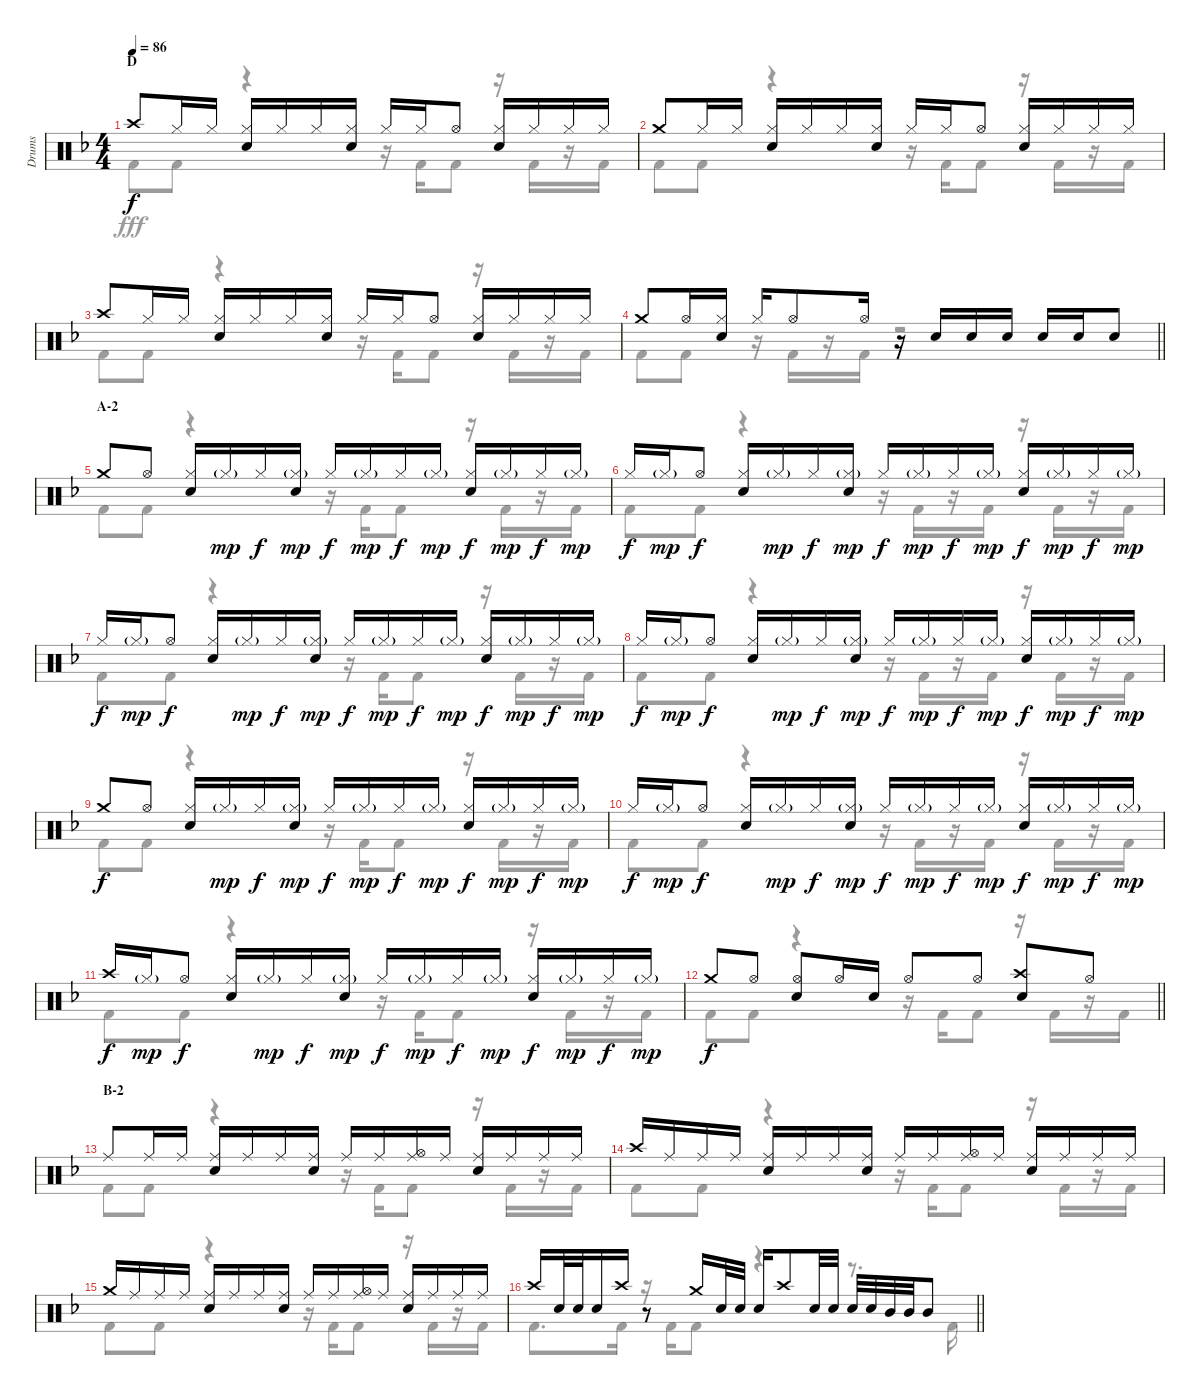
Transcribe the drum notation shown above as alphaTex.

\track ("Drums" "Drums") {instrument percussion}
\staff {score}
\articulation defaults
\voice
\ts (4 4)
\section ("" "D")
\tempo 86
\clef neutral
\ks f "Crash high (hit)".8{dy f} "Hi-Hat (closed)".16 "Hi-Hat (closed)".16
("Hi-Hat (closed)" "Snare (hit) 2").16 "Hi-Hat (closed)".16 "Hi-Hat (closed)".16 ("Hi-Hat (closed)" "Snare (hit) 2").16 "Hi-Hat (closed)".16 "Hi-Hat (closed)".16 "Hi-Hat (open)".8 ("Hi-Hat (closed)" "Snare (hit) 2").16 "Hi-Hat (closed)".16 "Hi-Hat (closed)".16 "Hi-Hat (closed)".16 |
"Crash medium (hit)".8 "Hi-Hat (closed)".16 "Hi-Hat (closed)".16 ("Hi-Hat (closed)" "Snare (hit) 2").16 "Hi-Hat (closed)".16 "Hi-Hat (closed)".16 ("Hi-Hat (closed)" "Snare (hit) 2").16 "Hi-Hat (closed)".16 "Hi-Hat (closed)".16 "Hi-Hat (open)".8 ("Hi-Hat (closed)" "Snare (hit) 2").16 "Hi-Hat (closed)".16 "Hi-Hat (closed)".16 "Hi-Hat (closed)".16 |
"Crash high (hit)".8 "Hi-Hat (closed)".16 "Hi-Hat (closed)".16 ("Hi-Hat (closed)" "Snare (hit) 2").16 "Hi-Hat (closed)".16 "Hi-Hat (closed)".16 ("Hi-Hat (closed)" "Snare (hit) 2").16 "Hi-Hat (closed)".16 "Hi-Hat (closed)".16 "Hi-Hat (open)".8 ("Hi-Hat (closed)" "Snare (hit) 2").16 "Hi-Hat (closed)".16 "Hi-Hat (closed)".16 "Hi-Hat (closed)".16 |
\barLineRight lightlight "Crash medium (hit)".8 "Hi-Hat (open)".16
("Hi-Hat (closed)" "Snare (hit) 2").16 "Hi-Hat (closed)".16 "Hi-Hat (open)".8 "Hi-Hat (open)".16 r.16 "Snare (hit) 2".16 "Snare (hit) 2".16 "Snare (hit) 2".16 "Snare (hit) 2".16 "Snare (hit) 2".16 "Snare (hit) 2".8 |
\section ("" "A-2")
"Crash medium (hit)".8 "Hi-Hat (open)".8 ("Hi-Hat (closed)" "Snare (hit) 2").16 "Hi-Hat (closed)"{g}.16{dy mp} "Hi-Hat (closed)".16{dy f} ("Hi-Hat (closed)"{g} "Snare (hit) 2").16{dy mp} "Hi-Hat (closed)".16{dy f} "Hi-Hat (closed)"{g}.16{dy mp} "Hi-Hat (closed)".16{dy f} "Hi-Hat (closed)"{g}.16{dy mp} ("Hi-Hat (closed)" "Snare (hit) 2").16{dy f} "Hi-Hat (closed)"{g}.16{dy mp} "Hi-Hat (closed)".16{dy f} "Hi-Hat (closed)"{g}.16{dy mp} |
"Hi-Hat (closed)".16{dy f} "Hi-Hat (closed)"{g}.16{dy mp} "Hi-Hat (open)".8{dy f} ("Hi-Hat (closed)" "Snare (hit) 2").16 "Hi-Hat (closed)"{g}.16{dy mp} "Hi-Hat (closed)".16{dy f} ("Hi-Hat (closed)"{g} "Snare (hit) 2").16{dy mp} "Hi-Hat (closed)".16{dy f} "Hi-Hat (closed)"{g}.16{dy mp} "Hi-Hat (closed)".16{dy f} "Hi-Hat (closed)"{g}.16{dy mp} ("Hi-Hat (closed)" "Snare (hit) 2").16{dy f} "Hi-Hat (closed)"{g}.16{dy mp} "Hi-Hat (closed)".16{dy f} "Hi-Hat (closed)"{g}.16{dy mp} |
"Hi-Hat (closed)".16{dy f} "Hi-Hat (closed)"{g}.16{dy mp} "Hi-Hat (open)".8{dy f} ("Hi-Hat (closed)" "Snare (hit) 2").16 "Hi-Hat (closed)"{g}.16{dy mp} "Hi-Hat (closed)".16{dy f} ("Hi-Hat (closed)"{g} "Snare (hit) 2").16{dy mp} "Hi-Hat (closed)".16{dy f} "Hi-Hat (closed)"{g}.16{dy mp} "Hi-Hat (closed)".16{dy f} "Hi-Hat (closed)"{g}.16{dy mp} ("Hi-Hat (closed)" "Snare (hit) 2").16{dy f} "Hi-Hat (closed)"{g}.16{dy mp} "Hi-Hat (closed)".16{dy f} "Hi-Hat (closed)"{g}.16{dy mp} |
"Hi-Hat (closed)".16{dy f} "Hi-Hat (closed)"{g}.16{dy mp} "Hi-Hat (open)".8{dy f} ("Hi-Hat (closed)" "Snare (hit) 2").16 "Hi-Hat (closed)"{g}.16{dy mp} "Hi-Hat (closed)".16{dy f} ("Hi-Hat (closed)"{g} "Snare (hit) 2").16{dy mp} "Hi-Hat (closed)".16{dy f} "Hi-Hat (closed)"{g}.16{dy mp} "Hi-Hat (closed)".16{dy f} "Hi-Hat (closed)"{g}.16{dy mp} ("Hi-Hat (closed)" "Snare (hit) 2").16{dy f} "Hi-Hat (closed)"{g}.16{dy mp} "Hi-Hat (closed)".16{dy f} "Hi-Hat (closed)"{g}.16{dy mp} |
"Crash medium (hit)".8{dy f} "Hi-Hat (open)".8 ("Hi-Hat (closed)" "Snare (hit) 2").16 "Hi-Hat (closed)"{g}.16{dy mp} "Hi-Hat (closed)".16{dy f} ("Hi-Hat (closed)"{g} "Snare (hit) 2").16{dy mp} "Hi-Hat (closed)".16{dy f} "Hi-Hat (closed)"{g}.16{dy mp} "Hi-Hat (closed)".16{dy f} "Hi-Hat (closed)"{g}.16{dy mp} ("Hi-Hat (closed)" "Snare (hit) 2").16{dy f} "Hi-Hat (closed)"{g}.16{dy mp} "Hi-Hat (closed)".16{dy f} "Hi-Hat (closed)"{g}.16{dy mp} |
"Hi-Hat (closed)".16{dy f} "Hi-Hat (closed)"{g}.16{dy mp} "Hi-Hat (open)".8{dy f} ("Hi-Hat (closed)" "Snare (hit) 2").16 "Hi-Hat (closed)"{g}.16{dy mp} "Hi-Hat (closed)".16{dy f} ("Hi-Hat (closed)"{g} "Snare (hit) 2").16{dy mp} "Hi-Hat (closed)".16{dy f} "Hi-Hat (closed)"{g}.16{dy mp} "Hi-Hat (closed)".16{dy f} "Hi-Hat (closed)"{g}.16{dy mp} ("Hi-Hat (closed)" "Snare (hit) 2").16{dy f} "Hi-Hat (closed)"{g}.16{dy mp} "Hi-Hat (closed)".16{dy f} "Hi-Hat (closed)"{g}.16{dy mp} |
"Crash high (hit)".16{dy f} "Hi-Hat (closed)"{g}.16{dy mp} "Hi-Hat (open)".8{dy f} ("Hi-Hat (closed)" "Snare (hit) 2").16 "Hi-Hat (closed)"{g}.16{dy mp} "Hi-Hat (closed)".16{dy f} ("Hi-Hat (closed)"{g} "Snare (hit) 2").16{dy mp} "Hi-Hat (closed)".16{dy f} "Hi-Hat (closed)"{g}.16{dy mp} "Hi-Hat (closed)".16{dy f} "Hi-Hat (closed)"{g}.16{dy mp} ("Hi-Hat (closed)" "Snare (hit) 2").16{dy f} "Hi-Hat (closed)"{g}.16{dy mp} "Hi-Hat (closed)".16{dy f} "Hi-Hat (closed)"{g}.16{dy mp} |
\barLineRight lightlight "Crash medium (hit)".8{dy f} "Hi-Hat (open)".8
("Hi-Hat (open)" "Snare (hit) 2").8 "Hi-Hat (open)".16 "Snare (hit) 2".16 "Hi-Hat (open)".8 "Hi-Hat (open)".8 ("Crash high (hit)" "Snare (hit) 2").8 "Hi-Hat (open)".8 |
\section ("" "B-2")
"Ride (middle)".8 "Ride (middle)".16 "Ride (middle)".16 ("Ride (middle)" "Snare (hit) 2").16 "Ride (middle)".16 "Ride (middle)".16 ("Ride (middle)" "Snare (hit) 2").16 "Ride (middle)".16 "Ride (middle)".16 ("Hi-Hat (open)" "Ride (middle)").16 "Ride (middle)".16 ("Ride (middle)" "Snare (hit) 2").16 "Ride (middle)".16 "Ride (middle)".16 "Ride (middle)".16 |
"Crash high (hit)".16 "Ride (middle)".16 "Ride (middle)".16 "Ride (middle)".16 ("Ride (middle)" "Snare (hit) 2").16 "Ride (middle)".16 "Ride (middle)".16 ("Ride (middle)" "Snare (hit) 2").16 "Ride (middle)".16 "Ride (middle)".16 ("Hi-Hat (open)" "Ride (middle)").16 "Ride (middle)".16 ("Ride (middle)" "Snare (hit) 2").16 "Ride (middle)".16 "Ride (middle)".16 "Ride (middle)".16 |
"Crash medium (hit)".16 "Ride (middle)".16 "Ride (middle)".16 "Ride (middle)".16 ("Ride (middle)" "Snare (hit) 2").16 "Ride (middle)".16 "Ride (middle)".16 ("Ride (middle)" "Snare (hit) 2").16 "Ride (middle)".16 "Ride (middle)".16 ("Hi-Hat (open)" "Ride (middle)").16 "Ride (middle)".16 ("Ride (middle)" "Snare (hit) 2").16 "Ride (middle)".16 "Ride (middle)".16 "Ride (middle)".16 |
\barLineRight lightlight "Crash high (hit)".16 "Snare (hit) 2".32 "Snare (hit) 2".32 "Snare (hit) 2".16 "Crash high (hit)".16
r.8 "Crash medium (hit)".16 "Snare (hit) 2".32 "Snare (hit) 2".32 "Snare (hit) 2".16 "Crash high (hit)".8 "Snare (hit) 2".32 "Snare (hit) 2".32 "Snare (hit) 2".32 "Snare (hit) 2".32 "Mid Tom (hit)".32 "Mid Tom (hit)".32 "Mid Tom (hit)".8
\voice
\clef neutral
\ottava regular
\simile none
\ks f "Kick (hit) 2".8{dy fff} "Kick (hit) 2".8
r.4 r.16 "Kick (hit) 2".16 "Kick (hit) 2".8 r.16 "Kick (hit) 2".16 r.16 "Kick (hit) 2".16 |
"Kick (hit) 2".8 "Kick (hit) 2".8 r.4 r.16 "Kick (hit) 2".16 "Kick (hit) 2".8 r.16 "Kick (hit) 2".16 r.16 "Kick (hit) 2".16 |
"Kick (hit) 2".8 "Kick (hit) 2".8 r.4 r.16 "Kick (hit) 2".16 "Kick (hit) 2".8 r.16 "Kick (hit) 2".16 r.16 "Kick (hit) 2".16 |
\barLineRight lightlight "Kick (hit) 2".8 "Kick (hit) 2".8
r.16 "Kick (hit) 2".16 r.16 "Kick (hit) 2".16 r.2 |
"Kick (hit) 2".8 "Kick (hit) 2".8 r.4 r.16 "Kick (hit) 2".16 "Kick (hit) 2".8 r.16 "Kick (hit) 2".16 r.16 "Kick (hit) 2".16 |
"Kick (hit) 2".8 "Kick (hit) 2".8 r.4 r.16 "Kick (hit) 2".16 r.16 "Kick (hit) 2".16 r.16 "Kick (hit) 2".16 r.16 "Kick (hit) 2".16 |
"Kick (hit) 2".8 "Kick (hit) 2".8 r.4 r.16 "Kick (hit) 2".16 "Kick (hit) 2".8 r.16 "Kick (hit) 2".16 r.16 "Kick (hit) 2".16 |
"Kick (hit) 2".8 "Kick (hit) 2".8 r.4 r.16 "Kick (hit) 2".16 r.16 "Kick (hit) 2".16 r.16 "Kick (hit) 2".16 r.16 "Kick (hit) 2".16 |
"Kick (hit) 2".8 "Kick (hit) 2".8 r.4 r.16 "Kick (hit) 2".16 "Kick (hit) 2".8 r.16 "Kick (hit) 2".16 r.16 "Kick (hit) 2".16 |
"Kick (hit) 2".8 "Kick (hit) 2".8 r.4 r.16 "Kick (hit) 2".16 r.16 "Kick (hit) 2".16 r.16 "Kick (hit) 2".16 r.16 "Kick (hit) 2".16 |
"Kick (hit) 2".8 "Kick (hit) 2".8 r.4 r.16 "Kick (hit) 2".16 "Kick (hit) 2".8 r.16 "Kick (hit) 2".16 r.16 "Kick (hit) 2".16 |
\barLineRight lightlight "Kick (hit) 2".8 "Kick (hit) 2".8
r.4 r.16 "Kick (hit) 2".16 "Kick (hit) 2".8 r.16 "Kick (hit) 2".16 r.16 "Kick (hit) 2".16 |
"Kick (hit) 2".8 "Kick (hit) 2".8 r.4 r.16 "Kick (hit) 2".16 "Kick (hit) 2".8 r.16 "Kick (hit) 2".16 r.16 "Kick (hit) 2".16 |
"Kick (hit) 2".8 "Kick (hit) 2".8 r.4 r.16 "Kick (hit) 2".16 "Kick (hit) 2".8 r.16 "Kick (hit) 2".16 r.16 "Kick (hit) 2".16 |
"Kick (hit) 2".8 "Kick (hit) 2".8 r.4 r.16 "Kick (hit) 2".16 "Kick (hit) 2".8 r.16 "Kick (hit) 2".16 r.16 "Kick (hit) 2".16 |
\barLineRight lightlight "Kick (hit) 2".8{d} "Kick (hit) 2".16
r.16 "Kick (hit) 2".16 "Kick (hit) 2".8 r.4 r.8{d} "Kick (hit) 2".16
